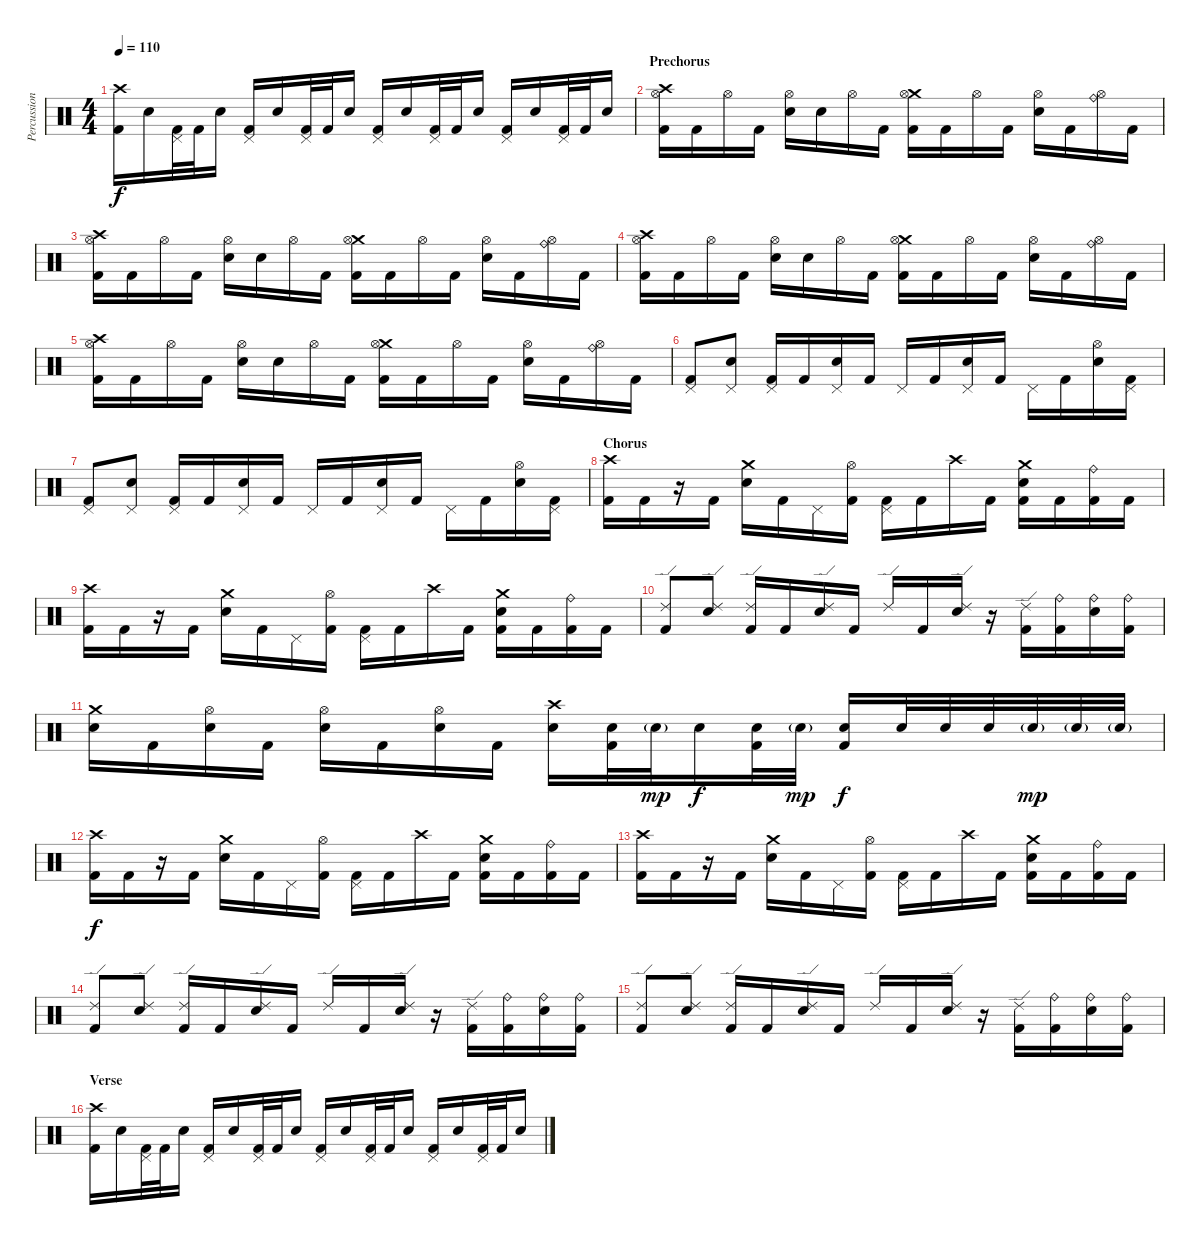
\track ("Percussion" "Percussion") {instrument percussion}
\staff {score}
\articulation defaults
\ts (4 4)
\tempo 110
\clef neutral
\ks c
("Crash high (hit)" "Kick (hit) 2").16{dy f} "Snare (hit) 2".16 ("Pedal Hi-Hat (hit)" "Kick (hit) 2").32 "Kick (hit) 2".32 "Snare (hit) 2".16 ("Pedal Hi-Hat (hit)" "Kick (hit) 2").16 "Snare (hit) 2".16 ("Pedal Hi-Hat (hit)" "Kick (hit) 2").32 "Kick (hit) 2".32 "Snare (hit) 2".16 ("Pedal Hi-Hat (hit)" "Kick (hit) 2").16 "Snare (hit) 2".16 ("Pedal Hi-Hat (hit)" "Kick (hit) 2").32 "Kick (hit) 2".32 "Snare (hit) 2".16 ("Pedal Hi-Hat (hit)" "Kick (hit) 2").16 "Snare (hit) 2".16 ("Pedal Hi-Hat (hit)" "Kick (hit) 2").32 "Kick (hit) 2".32 "Snare (hit) 2".16 |
\section ("" "Prechorus")
("Crash high (hit)" "Hi-Hat (open)" "Kick (hit) 2").16 "Kick (hit) 2".16 "Hi-Hat (open)".16 "Kick (hit) 2".16 ("Hi-Hat (open)" "Snare (hit) 2").16 "Snare (hit) 2".16 "Hi-Hat (open)".16 "Kick (hit) 2".16 ("Crash medium (hit)" "Hi-Hat (open)" "Kick (hit) 2").16 "Kick (hit) 2".16 "Hi-Hat (open)".16 "Kick (hit) 2".16 ("Hi-Hat (open)" "Snare (hit) 2").16 "Kick (hit) 2".16 ("Hi-Hat (open)" "Ride (bell)").16 "Kick (hit) 2".16 |
("Crash high (hit)" "Hi-Hat (open)" "Kick (hit) 2").16 "Kick (hit) 2".16 "Hi-Hat (open)".16 "Kick (hit) 2".16 ("Hi-Hat (open)" "Snare (hit) 2").16 "Snare (hit) 2".16 "Hi-Hat (open)".16 "Kick (hit) 2".16 ("Crash medium (hit)" "Hi-Hat (open)" "Kick (hit) 2").16 "Kick (hit) 2".16 "Hi-Hat (open)".16 "Kick (hit) 2".16 ("Hi-Hat (open)" "Snare (hit) 2").16 "Kick (hit) 2".16 ("Hi-Hat (open)" "Ride (bell)").16 "Kick (hit) 2".16 |
("Crash high (hit)" "Hi-Hat (open)" "Kick (hit) 2").16 "Kick (hit) 2".16 "Hi-Hat (open)".16 "Kick (hit) 2".16 ("Hi-Hat (open)" "Snare (hit) 2").16 "Snare (hit) 2".16 "Hi-Hat (open)".16 "Kick (hit) 2".16 ("Crash medium (hit)" "Hi-Hat (open)" "Kick (hit) 2").16 "Kick (hit) 2".16 "Hi-Hat (open)".16 "Kick (hit) 2".16 ("Hi-Hat (open)" "Snare (hit) 2").16 "Kick (hit) 2".16 ("Hi-Hat (open)" "Ride (bell)").16 "Kick (hit) 2".16 |
("Crash high (hit)" "Hi-Hat (open)" "Kick (hit) 2").16 "Kick (hit) 2".16 "Hi-Hat (open)".16 "Kick (hit) 2".16 ("Hi-Hat (open)" "Snare (hit) 2").16 "Snare (hit) 2".16 "Hi-Hat (open)".16 "Kick (hit) 2".16 ("Crash medium (hit)" "Hi-Hat (open)" "Kick (hit) 2").16 "Kick (hit) 2".16 "Hi-Hat (open)".16 "Kick (hit) 2".16 ("Hi-Hat (open)" "Snare (hit) 2").16 "Kick (hit) 2".16 ("Hi-Hat (open)" "Ride (bell)").16 "Kick (hit) 2".16 |
("Pedal Hi-Hat (hit)" "Kick (hit) 2").8 ("Pedal Hi-Hat (hit)" "Snare (hit) 2").8 ("Pedal Hi-Hat (hit)" "Kick (hit) 2").16 "Kick (hit) 2".16 ("Pedal Hi-Hat (hit)" "Snare (hit) 2").16 "Kick (hit) 2".16 "Pedal Hi-Hat (hit)".16 "Kick (hit) 2".16 ("Pedal Hi-Hat (hit)" "Snare (hit) 2").16 "Kick (hit) 2".16 "Pedal Hi-Hat (hit)".16 "Kick (hit) 2".16 ("Hi-Hat (open)" "Snare (hit) 2").16 ("Pedal Hi-Hat (hit)" "Kick (hit) 2").16 |
("Pedal Hi-Hat (hit)" "Kick (hit) 2").8 ("Pedal Hi-Hat (hit)" "Snare (hit) 2").8 ("Pedal Hi-Hat (hit)" "Kick (hit) 2").16 "Kick (hit) 2".16 ("Pedal Hi-Hat (hit)" "Snare (hit) 2").16 "Kick (hit) 2".16 "Pedal Hi-Hat (hit)".16 "Kick (hit) 2".16 ("Pedal Hi-Hat (hit)" "Snare (hit) 2").16 "Kick (hit) 2".16 "Pedal Hi-Hat (hit)".16 "Kick (hit) 2".16 ("Hi-Hat (open)" "Snare (hit) 2").16 ("Pedal Hi-Hat (hit)" "Kick (hit) 2").16 |
\section ("" "Chorus")
("Crash high (hit)" "Kick (hit) 2").16 "Kick (hit) 2".16 r.16 "Kick (hit) 2".16 ("Crash medium (hit)" "Snare (hit) 2").16 "Kick (hit) 2".16 "Pedal Hi-Hat (hit)".16 ("Hi-Hat (open)" "Kick (hit) 2").16 ("Pedal Hi-Hat (hit)" "Kick (hit) 2").16 "Kick (hit) 2".16 "Crash high (hit)".16 "Kick (hit) 2".16 ("Crash medium (hit)" "Snare (hit) 2" "Kick (hit) 2").16 "Kick (hit) 2".16 ("Ride (bell)" "Kick (hit) 2").16 "Kick (hit) 2".16 |
("Crash high (hit)" "Kick (hit) 2").16 "Kick (hit) 2".16 r.16 "Kick (hit) 2".16 ("Crash medium (hit)" "Snare (hit) 2").16 "Kick (hit) 2".16 "Pedal Hi-Hat (hit)".16 ("Hi-Hat (open)" "Kick (hit) 2").16 ("Pedal Hi-Hat (hit)" "Kick (hit) 2").16 "Kick (hit) 2".16 "Crash high (hit)".16 "Kick (hit) 2".16 ("Crash medium (hit)" "Snare (hit) 2" "Kick (hit) 2").16 "Kick (hit) 2".16 ("Ride (bell)" "Kick (hit) 2").16 "Kick (hit) 2".16 |
("Ride (edge) 2" "Kick (hit) 2").8 ("Ride (edge) 2" "Snare (hit) 2").8 ("Ride (edge) 2" "Kick (hit) 2").16 "Kick (hit) 2".16 ("Ride (edge) 2" "Snare (hit) 2").16 "Kick (hit) 2".16 "Ride (edge) 2".16 "Kick (hit) 2".16 ("Ride (edge) 2" "Snare (hit) 2").16 r.16 ("Ride (edge) 2" "Kick (hit) 2").16 ("Ride (bell)" "Kick (hit) 2").16 ("Ride (bell)" "Snare (hit) 2").16 ("Ride (bell)" "Kick (hit) 2").16 |
("Crash medium (hit)" "Snare (hit) 2").16 "Kick (hit) 2".16 ("Hi-Hat (open)" "Snare (hit) 2").16 "Kick (hit) 2".16 ("Hi-Hat (open)" "Snare (hit) 2").16 "Kick (hit) 2".16 ("Hi-Hat (open)" "Snare (hit) 2").16 "Kick (hit) 2".16 ("Crash high (hit)" "Snare (hit) 2").16 ("Snare (hit) 2" "Kick (hit) 2").32 "Snare (hit) 2"{g}.32{dy mp} "Snare (hit) 2".16{dy f} ("Snare (hit) 2" "Kick (hit) 2").32 "Snare (hit) 2"{g}.32{dy mp} ("Snare (hit) 2" "Kick (hit) 2").16{dy f} "Snare (hit) 2".32 "Snare (hit) 2".32 "Snare (hit) 2".32 "Snare (hit) 2"{g}.32{dy mp} "Snare (hit) 2"{g}.32 "Snare (hit) 2"{g}.32 |
("Crash high (hit)" "Kick (hit) 2").16{dy f} "Kick (hit) 2".16 r.16 "Kick (hit) 2".16 ("Crash medium (hit)" "Snare (hit) 2").16 "Kick (hit) 2".16 "Pedal Hi-Hat (hit)".16 ("Hi-Hat (open)" "Kick (hit) 2").16 ("Pedal Hi-Hat (hit)" "Kick (hit) 2").16 "Kick (hit) 2".16 "Crash high (hit)".16 "Kick (hit) 2".16 ("Crash medium (hit)" "Snare (hit) 2" "Kick (hit) 2").16 "Kick (hit) 2".16 ("Ride (bell)" "Kick (hit) 2").16 "Kick (hit) 2".16 |
("Crash high (hit)" "Kick (hit) 2").16 "Kick (hit) 2".16 r.16 "Kick (hit) 2".16 ("Crash medium (hit)" "Snare (hit) 2").16 "Kick (hit) 2".16 "Pedal Hi-Hat (hit)".16 ("Hi-Hat (open)" "Kick (hit) 2").16 ("Pedal Hi-Hat (hit)" "Kick (hit) 2").16 "Kick (hit) 2".16 "Crash high (hit)".16 "Kick (hit) 2".16 ("Crash medium (hit)" "Snare (hit) 2" "Kick (hit) 2").16 "Kick (hit) 2".16 ("Ride (bell)" "Kick (hit) 2").16 "Kick (hit) 2".16 |
("Ride (edge) 2" "Kick (hit) 2").8 ("Ride (edge) 2" "Snare (hit) 2").8 ("Ride (edge) 2" "Kick (hit) 2").16 "Kick (hit) 2".16 ("Ride (edge) 2" "Snare (hit) 2").16 "Kick (hit) 2".16 "Ride (edge) 2".16 "Kick (hit) 2".16 ("Ride (edge) 2" "Snare (hit) 2").16 r.16 ("Ride (edge) 2" "Kick (hit) 2").16 ("Ride (bell)" "Kick (hit) 2").16 ("Ride (bell)" "Snare (hit) 2").16 ("Ride (bell)" "Kick (hit) 2").16 |
("Ride (edge) 2" "Kick (hit) 2").8 ("Ride (edge) 2" "Snare (hit) 2").8 ("Ride (edge) 2" "Kick (hit) 2").16 "Kick (hit) 2".16 ("Ride (edge) 2" "Snare (hit) 2").16 "Kick (hit) 2".16 "Ride (edge) 2".16 "Kick (hit) 2".16 ("Ride (edge) 2" "Snare (hit) 2").16 r.16 ("Ride (edge) 2" "Kick (hit) 2").16 ("Ride (bell)" "Kick (hit) 2").16 ("Ride (bell)" "Snare (hit) 2").16 ("Ride (bell)" "Kick (hit) 2").16 |
\section ("" "Verse")
("Crash high (hit)" "Kick (hit) 2").16 "Snare (hit) 2".16 ("Pedal Hi-Hat (hit)" "Kick (hit) 2").32 "Kick (hit) 2".32 "Snare (hit) 2".16 ("Pedal Hi-Hat (hit)" "Kick (hit) 2").16 "Snare (hit) 2".16 ("Pedal Hi-Hat (hit)" "Kick (hit) 2").32 "Kick (hit) 2".32 "Snare (hit) 2".16 ("Pedal Hi-Hat (hit)" "Kick (hit) 2").16 "Snare (hit) 2".16 ("Pedal Hi-Hat (hit)" "Kick (hit) 2").32 "Kick (hit) 2".32 "Snare (hit) 2".16 ("Pedal Hi-Hat (hit)" "Kick (hit) 2").16 "Snare (hit) 2".16 ("Pedal Hi-Hat (hit)" "Kick (hit) 2").32 "Kick (hit) 2".32 "Snare (hit) 2".16
